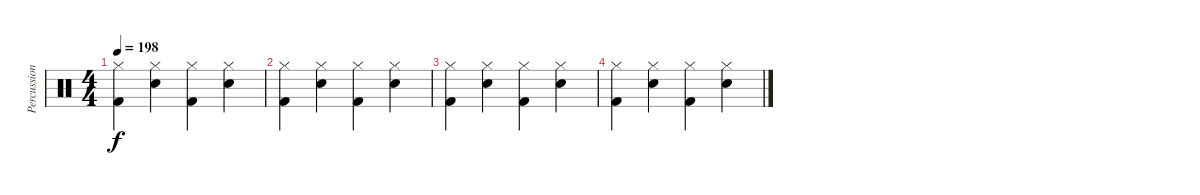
\track ("Percussion" "Percussion") {instrument percussion}
\staff {score}
\articulation defaults
\ts (4 4)
\tempo 198
\clef neutral
\ks c
("Hi-Hat (closed)" "Kick (hit) 2").4{dy f} ("Hi-Hat (closed)" "Electric Snare (hit)").4 ("Hi-Hat (closed)" "Kick (hit) 2").4 ("Hi-Hat (closed)" "Electric Snare (hit)").4 |
("Hi-Hat (closed)" "Kick (hit) 2").4 ("Hi-Hat (closed)" "Electric Snare (hit)").4 ("Hi-Hat (closed)" "Kick (hit) 2").4 ("Hi-Hat (closed)" "Electric Snare (hit)").4 |
("Hi-Hat (closed)" "Kick (hit) 2").4 ("Hi-Hat (closed)" "Electric Snare (hit)").4 ("Hi-Hat (closed)" "Kick (hit) 2").4 ("Hi-Hat (closed)" "Electric Snare (hit)").4 |
("Hi-Hat (closed)" "Kick (hit) 2").4 ("Hi-Hat (closed)" "Electric Snare (hit)").4 ("Hi-Hat (closed)" "Kick (hit) 2").4 ("Hi-Hat (closed)" "Electric Snare (hit)").4
